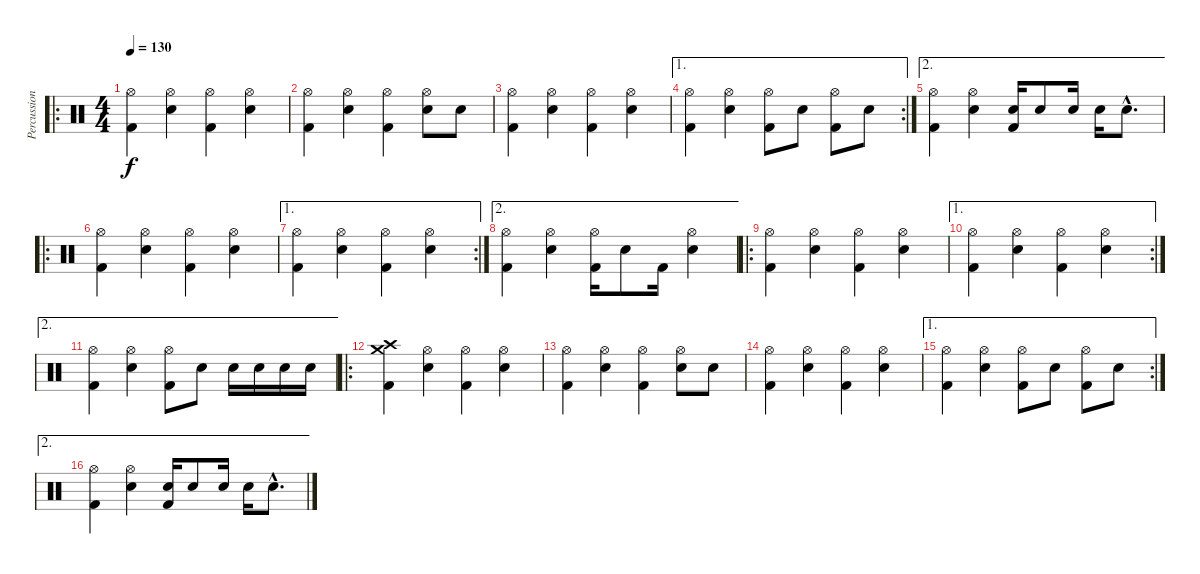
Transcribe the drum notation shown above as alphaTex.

\track ("Percussion" "Percussion") {instrument percussion}
\staff {score}
\articulation defaults
\ro
\ts (4 4)
\tempo 130
\clef neutral
\ks c
("Hi-Hat (open)" "Kick (hit) 2").4{dy f} ("Hi-Hat (open)" "Electric Snare (hit)").4 ("Hi-Hat (open)" "Kick (hit) 2").4 ("Hi-Hat (open)" "Electric Snare (hit)").4 |
("Hi-Hat (open)" "Kick (hit) 2").4 ("Hi-Hat (open)" "Electric Snare (hit)").4 ("Hi-Hat (open)" "Kick (hit) 2").4 ("Hi-Hat (open)" "Electric Snare (hit)").8 "Electric Snare (hit)".8 |
("Hi-Hat (open)" "Kick (hit) 2").4 ("Hi-Hat (open)" "Electric Snare (hit)").4 ("Hi-Hat (open)" "Kick (hit) 2").4 ("Hi-Hat (open)" "Electric Snare (hit)").4 |
\ae 1
\rc 2
("Hi-Hat (open)" "Kick (hit) 2").4 ("Hi-Hat (open)" "Electric Snare (hit)").4 ("Hi-Hat (open)" "Kick (hit) 2").8 "Electric Snare (hit)".8 ("Hi-Hat (open)" "Kick (hit) 2").8 "Electric Snare (hit)".8 |
\ae 2
("Hi-Hat (open)" "Kick (hit) 2").4 ("Hi-Hat (open)" "Electric Snare (hit)").4 ("Electric Snare (hit)" "Kick (hit) 2").16 "Electric Snare (hit)".8 "Electric Snare (hit)".16 "Electric Snare (hit)".16 "Electric Snare (hit)"{hac}.8{d} |
\ro
("Hi-Hat (open)" "Kick (hit) 2").4 ("Hi-Hat (open)" "Electric Snare (hit)").4 ("Hi-Hat (open)" "Kick (hit) 2").4 ("Hi-Hat (open)" "Electric Snare (hit)").4 |
\ae 1
\rc 2
("Hi-Hat (open)" "Kick (hit) 2").4 ("Hi-Hat (open)" "Electric Snare (hit)").4 ("Hi-Hat (open)" "Kick (hit) 2").4 ("Hi-Hat (open)" "Electric Snare (hit)").4 |
\ae 2
("Hi-Hat (open)" "Kick (hit) 2").4 ("Hi-Hat (open)" "Electric Snare (hit)").4 ("Hi-Hat (open)" "Kick (hit) 2").16 "Electric Snare (hit)".8 "Kick (hit) 2".16 ("Hi-Hat (open)" "Electric Snare (hit)").4 |
\ro
("Hi-Hat (open)" "Kick (hit) 2").4 ("Hi-Hat (open)" "Electric Snare (hit)").4 ("Hi-Hat (open)" "Kick (hit) 2").4 ("Hi-Hat (open)" "Electric Snare (hit)").4 |
\ae 1
\rc 2
("Hi-Hat (open)" "Kick (hit) 2").4 ("Hi-Hat (open)" "Electric Snare (hit)").4 ("Hi-Hat (open)" "Kick (hit) 2").4 ("Hi-Hat (open)" "Electric Snare (hit)").4 |
\ae 2
("Hi-Hat (open)" "Kick (hit) 2").4 ("Hi-Hat (open)" "Electric Snare (hit)").4 ("Hi-Hat (open)" "Kick (hit) 2").8 "Electric Snare (hit)".8 "Electric Snare (hit)".16 "Electric Snare (hit)".16 "Electric Snare (hit)".16 "Electric Snare (hit)".16 |
\ro
("Crash high (hit)" "Crash medium (hit)" "Kick (hit) 2").4 ("Hi-Hat (open)" "Electric Snare (hit)").4 ("Hi-Hat (open)" "Kick (hit) 2").4 ("Hi-Hat (open)" "Electric Snare (hit)").4 |
("Hi-Hat (open)" "Kick (hit) 2").4 ("Hi-Hat (open)" "Electric Snare (hit)").4 ("Hi-Hat (open)" "Kick (hit) 2").4 ("Hi-Hat (open)" "Electric Snare (hit)").8 "Electric Snare (hit)".8 |
("Hi-Hat (open)" "Kick (hit) 2").4 ("Hi-Hat (open)" "Electric Snare (hit)").4 ("Hi-Hat (open)" "Kick (hit) 2").4 ("Hi-Hat (open)" "Electric Snare (hit)").4 |
\ae 1
\rc 2
("Hi-Hat (open)" "Kick (hit) 2").4 ("Hi-Hat (open)" "Electric Snare (hit)").4 ("Hi-Hat (open)" "Kick (hit) 2").8 "Electric Snare (hit)".8 ("Hi-Hat (open)" "Kick (hit) 2").8 "Electric Snare (hit)".8 |
\ae 2
("Hi-Hat (open)" "Kick (hit) 2").4 ("Hi-Hat (open)" "Electric Snare (hit)").4 ("Electric Snare (hit)" "Kick (hit) 2").16 "Electric Snare (hit)".8 "Electric Snare (hit)".16 "Electric Snare (hit)".16 "Electric Snare (hit)"{hac}.8{d}
